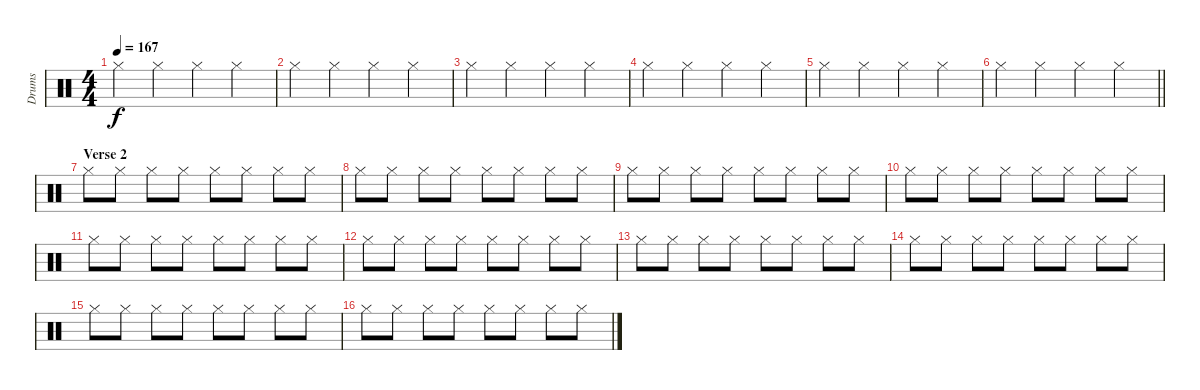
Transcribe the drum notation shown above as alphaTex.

\track ("Drums" "Drums") {instrument percussion}
\staff {score}
\articulation defaults
\ts (4 4)
\tempo 167
\clef neutral
\ks c "Hi-Hat (closed)".4{dy f} "Hi-Hat (closed)".4 "Hi-Hat (closed)".4 "Hi-Hat (closed)".4
|
"Hi-Hat (closed)".4 "Hi-Hat (closed)".4 "Hi-Hat (closed)".4 "Hi-Hat (closed)".4 |
"Hi-Hat (closed)".4 "Hi-Hat (closed)".4 "Hi-Hat (closed)".4 "Hi-Hat (closed)".4 |
"Hi-Hat (closed)".4 "Hi-Hat (closed)".4 "Hi-Hat (closed)".4 "Hi-Hat (closed)".4 |
"Hi-Hat (closed)".4 "Hi-Hat (closed)".4 "Hi-Hat (closed)".4 "Hi-Hat (closed)".4 |
\barLineRight lightlight "Hi-Hat (closed)".4 "Hi-Hat (closed)".4 "Hi-Hat (closed)".4 "Hi-Hat (closed)".4
|
\section ("" "Verse 2")
"Hi-Hat (closed)".8 "Hi-Hat (closed)".8 "Hi-Hat (closed)".8 "Hi-Hat (closed)".8 "Hi-Hat (closed)".8 "Hi-Hat (closed)".8 "Hi-Hat (closed)".8 "Hi-Hat (closed)".8 |
"Hi-Hat (closed)".8 "Hi-Hat (closed)".8 "Hi-Hat (closed)".8 "Hi-Hat (closed)".8 "Hi-Hat (closed)".8 "Hi-Hat (closed)".8 "Hi-Hat (closed)".8 "Hi-Hat (closed)".8 |
"Hi-Hat (closed)".8 "Hi-Hat (closed)".8 "Hi-Hat (closed)".8 "Hi-Hat (closed)".8 "Hi-Hat (closed)".8 "Hi-Hat (closed)".8 "Hi-Hat (closed)".8 "Hi-Hat (closed)".8 |
"Hi-Hat (closed)".8 "Hi-Hat (closed)".8 "Hi-Hat (closed)".8 "Hi-Hat (closed)".8 "Hi-Hat (closed)".8 "Hi-Hat (closed)".8 "Hi-Hat (closed)".8 "Hi-Hat (closed)".8 |
"Hi-Hat (closed)".8 "Hi-Hat (closed)".8 "Hi-Hat (closed)".8 "Hi-Hat (closed)".8 "Hi-Hat (closed)".8 "Hi-Hat (closed)".8 "Hi-Hat (closed)".8 "Hi-Hat (closed)".8 |
"Hi-Hat (closed)".8 "Hi-Hat (closed)".8 "Hi-Hat (closed)".8 "Hi-Hat (closed)".8 "Hi-Hat (closed)".8 "Hi-Hat (closed)".8 "Hi-Hat (closed)".8 "Hi-Hat (closed)".8 |
"Hi-Hat (closed)".8 "Hi-Hat (closed)".8 "Hi-Hat (closed)".8 "Hi-Hat (closed)".8 "Hi-Hat (closed)".8 "Hi-Hat (closed)".8 "Hi-Hat (closed)".8 "Hi-Hat (closed)".8 |
"Hi-Hat (closed)".8 "Hi-Hat (closed)".8 "Hi-Hat (closed)".8 "Hi-Hat (closed)".8 "Hi-Hat (closed)".8 "Hi-Hat (closed)".8 "Hi-Hat (closed)".8 "Hi-Hat (closed)".8 |
"Hi-Hat (closed)".8 "Hi-Hat (closed)".8 "Hi-Hat (closed)".8 "Hi-Hat (closed)".8 "Hi-Hat (closed)".8 "Hi-Hat (closed)".8 "Hi-Hat (closed)".8 "Hi-Hat (closed)".8 |
"Hi-Hat (closed)".8 "Hi-Hat (closed)".8 "Hi-Hat (closed)".8 "Hi-Hat (closed)".8 "Hi-Hat (closed)".8 "Hi-Hat (closed)".8 "Hi-Hat (closed)".8 "Hi-Hat (closed)".8
